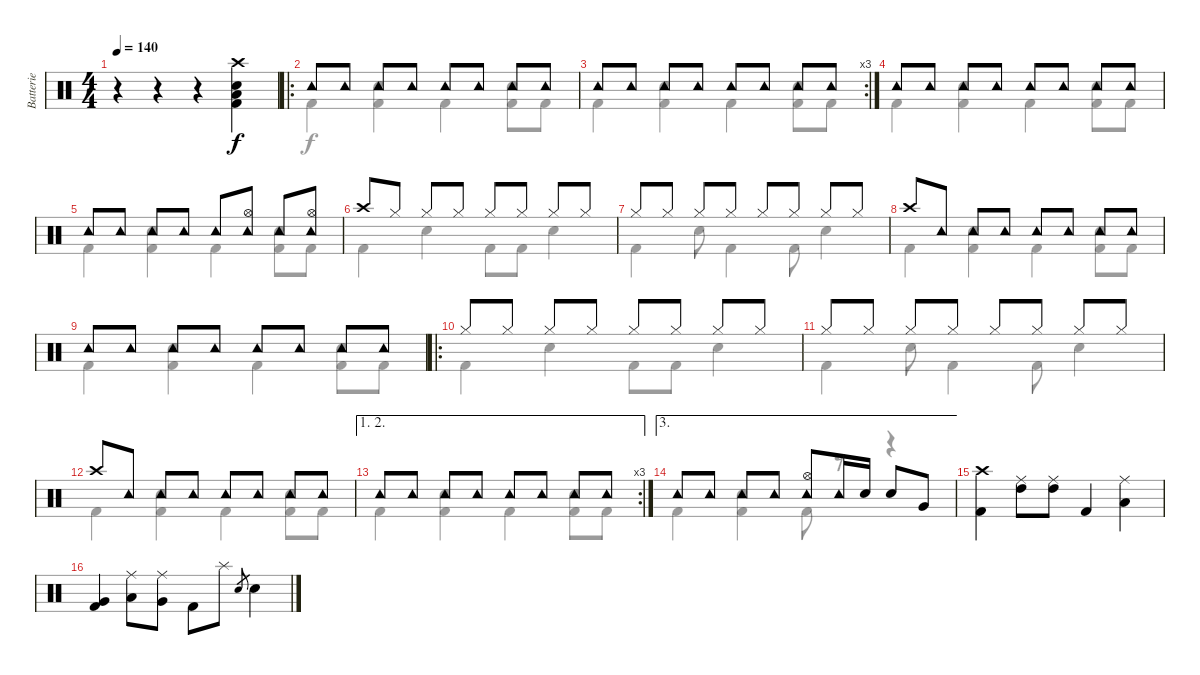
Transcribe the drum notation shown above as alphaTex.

\track ("Batterie" "Batterie") {instrument percussion}
\staff {score}
\articulation defaults
\voice
\ts (4 4)
\tempo 140
\clef neutral
\ks c
r.4{dy f} r.4 r.4 ("Crash high (hit)" "Electric Snare (hit)" "Kick (hit) 2" "Low Floor Tom (hit)").4 |
\ro "Tambourine (hit)".8 "Tambourine (hit)".8 "Tambourine (hit)".8 "Tambourine (hit)".8 "Tambourine (hit)".8 "Tambourine (hit)".8 "Tambourine (hit)".8 "Tambourine (hit)".8
|
\rc 3 "Tambourine (hit)".8 "Tambourine (hit)".8 "Tambourine (hit)".8 "Tambourine (hit)".8 "Tambourine (hit)".8 "Tambourine (hit)".8 "Tambourine (hit)".8 "Tambourine (hit)".8
|
"Tambourine (hit)".8 "Tambourine (hit)".8 "Tambourine (hit)".8 "Tambourine (hit)".8 "Tambourine (hit)".8 "Tambourine (hit)".8 "Tambourine (hit)".8 "Tambourine (hit)".8 |
"Tambourine (hit)".8 "Tambourine (hit)".8 "Tambourine (hit)".8 "Tambourine (hit)".8 "Tambourine (hit)".8 ("Hi-Hat (open)" "Tambourine (hit)").8 "Tambourine (hit)".8 ("Hi-Hat (open)" "Tambourine (hit)").8 |
"Crash high (hit)".8 "Hi-Hat (closed)".8 "Hi-Hat (closed)".8 "Hi-Hat (closed)".8 "Hi-Hat (closed)".8 "Hi-Hat (closed)".8 "Hi-Hat (closed)".8 "Hi-Hat (closed)".8 |
"Hi-Hat (closed)".8 "Hi-Hat (closed)".8 "Hi-Hat (closed)".8 "Hi-Hat (closed)".8 "Hi-Hat (closed)".8 "Hi-Hat (closed)".8 "Hi-Hat (closed)".8 "Hi-Hat (closed)".8 |
"Crash high (hit)".8 "Tambourine (hit)".8 "Tambourine (hit)".8 "Tambourine (hit)".8 "Tambourine (hit)".8 "Tambourine (hit)".8 "Tambourine (hit)".8 "Tambourine (hit)".8 |
"Tambourine (hit)".8 "Tambourine (hit)".8 "Tambourine (hit)".8 "Tambourine (hit)".8 "Tambourine (hit)".8 "Tambourine (hit)".8 "Tambourine (hit)".8 "Tambourine (hit)".8 |
\ro "Hi-Hat (closed)".8 "Hi-Hat (closed)".8 "Hi-Hat (closed)".8 "Hi-Hat (closed)".8 "Hi-Hat (closed)".8 "Hi-Hat (closed)".8 "Hi-Hat (closed)".8 "Hi-Hat (closed)".8
|
"Hi-Hat (closed)".8 "Hi-Hat (closed)".8 "Hi-Hat (closed)".8 "Hi-Hat (closed)".8 "Hi-Hat (closed)".8 "Hi-Hat (closed)".8 "Hi-Hat (closed)".8 "Hi-Hat (closed)".8 |
"Crash high (hit)".8 "Tambourine (hit)".8 "Tambourine (hit)".8 "Tambourine (hit)".8 "Tambourine (hit)".8 "Tambourine (hit)".8 "Tambourine (hit)".8 "Tambourine (hit)".8 |
\ae (1 2)
\rc 3 "Tambourine (hit)".8 "Tambourine (hit)".8 "Tambourine (hit)".8 "Tambourine (hit)".8 "Tambourine (hit)".8 "Tambourine (hit)".8 "Tambourine (hit)".8 "Tambourine (hit)".8
|
\ae 3 "Tambourine (hit)".8 "Tambourine (hit)".8 "Tambourine (hit)".8 "Tambourine (hit)".8
("Hi-Hat (open)" "Tambourine (hit)").8 "Tambourine (hit)".16 "Electric Snare (hit)".16 "Electric Snare (hit)".8 "Very Low Tom (hit)".8 |
("Crash high (hit)" "Kick (hit) 2").4 ("Ride (middle)" "High Tom (hit)").8 ("Ride (middle)" "High Tom (hit)").8 "Kick (hit) 2".4 ("Ride (middle)" "Low Tom (hit)").4 |
("Very Low Tom (hit)" "Kick (hit) 2").4 ("Ride (middle)" "Low Tom (hit)").8 ("Ride (middle)" "Very Low Tom (hit)").8 "Kick (hit) 2".8 "Splash (hit)".8 "Electric Snare (hit)".8{gr} "Electric Snare (hit)".4
\voice
\clef neutral
\ottava regular
\simile none
\ks c
|
"Kick (hit) 2".4 ("Electric Snare (hit)" "Kick (hit) 2").4 "Kick (hit) 2".4 ("Electric Snare (hit)" "Kick (hit) 2").8 "Kick (hit) 2".8 |
"Kick (hit) 2".4 ("Electric Snare (hit)" "Kick (hit) 2").4 "Kick (hit) 2".4 ("Electric Snare (hit)" "Kick (hit) 2").8 "Kick (hit) 2".8 |
"Kick (hit) 2".4 ("Electric Snare (hit)" "Kick (hit) 2").4 "Kick (hit) 2".4 ("Electric Snare (hit)" "Kick (hit) 2").8 "Kick (hit) 2".8 |
"Kick (hit) 2".4 ("Electric Snare (hit)" "Kick (hit) 2").4 "Kick (hit) 2".4 ("Electric Snare (hit)" "Kick (hit) 2").8 "Kick (hit) 2".8 |
"Kick (hit) 2".4 "Electric Snare (hit)".4 "Kick (hit) 2".8 "Kick (hit) 2".8 "Electric Snare (hit)".4 |
"Kick (hit) 2".4 "Electric Snare (hit)".8 "Kick (hit) 2".4 "Kick (hit) 2".8 "Electric Snare (hit)".4 |
"Kick (hit) 2".4 ("Electric Snare (hit)" "Kick (hit) 2").4 "Kick (hit) 2".4 ("Electric Snare (hit)" "Kick (hit) 2").8 "Kick (hit) 2".8 |
"Kick (hit) 2".4 ("Electric Snare (hit)" "Kick (hit) 2").4 "Kick (hit) 2".4 ("Electric Snare (hit)" "Kick (hit) 2").8 "Kick (hit) 2".8 |
"Kick (hit) 2".4 "Electric Snare (hit)".4 "Kick (hit) 2".8 "Kick (hit) 2".8 "Electric Snare (hit)".4 |
"Kick (hit) 2".4 "Electric Snare (hit)".8 "Kick (hit) 2".4 "Kick (hit) 2".8 "Electric Snare (hit)".4 |
"Kick (hit) 2".4 ("Electric Snare (hit)" "Kick (hit) 2").4 "Kick (hit) 2".4 ("Electric Snare (hit)" "Kick (hit) 2").8 "Kick (hit) 2".8 |
"Kick (hit) 2".4 ("Electric Snare (hit)" "Kick (hit) 2").4 "Kick (hit) 2".4 ("Electric Snare (hit)" "Kick (hit) 2").8 "Kick (hit) 2".8 |
"Kick (hit) 2".4 ("Electric Snare (hit)" "Kick (hit) 2").4 "Kick (hit) 2".8 r.8 r.4 |
|
